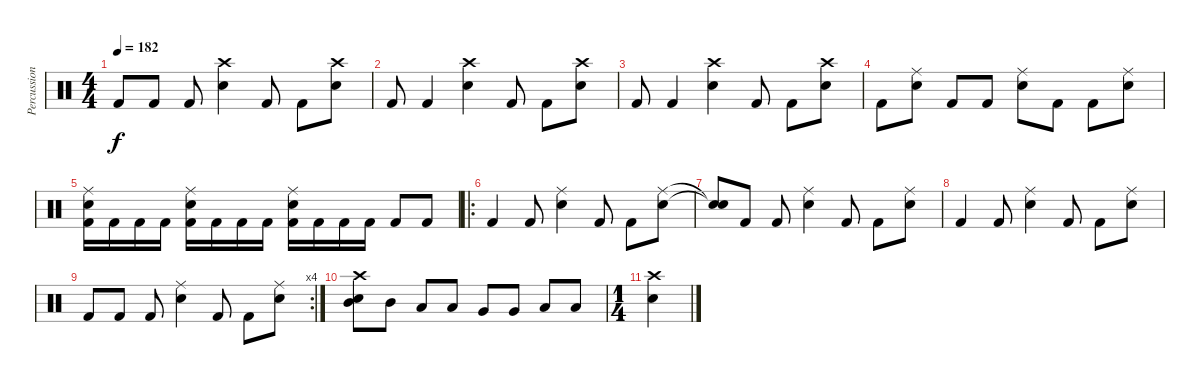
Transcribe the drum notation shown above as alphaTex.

\track ("Percussion" "Percussion") {instrument percussion}
\staff {score}
\articulation defaults
\ts (4 4)
\tempo 182
\clef neutral
\ks c "Kick (hit) 2".8{dy f} "Kick (hit) 2".8 "Kick (hit) 2".8
("Crash high (hit)" "Snare (hit) 2").4 "Kick (hit) 2".8 "Kick (hit) 2".8 ("Crash high (hit)" "Snare (hit) 2").8 |
"Kick (hit) 2".8 "Kick (hit) 2".4 ("Crash high (hit)" "Snare (hit) 2").4 "Kick (hit) 2".8 "Kick (hit) 2".8 ("Crash high (hit)" "Snare (hit) 2").8 |
"Kick (hit) 2".8 "Kick (hit) 2".4 ("Crash high (hit)" "Snare (hit) 2").4 "Kick (hit) 2".8 "Kick (hit) 2".8 ("Crash high (hit)" "Snare (hit) 2").8 |
"Kick (hit) 2".8 ("Ride (middle)" "Snare (hit) 2").8 "Kick (hit) 2".8 "Kick (hit) 2".8 ("Ride (middle)" "Snare (hit) 2").8 "Kick (hit) 2".8 "Kick (hit) 2".8 ("Ride (middle)" "Snare (hit) 2").8 |
("Kick (hit) 2" "Ride (middle)" "Snare (hit) 2").16 "Kick (hit) 2".16 "Kick (hit) 2".16 "Kick (hit) 2".16 ("Kick (hit) 2" "Ride (middle)" "Snare (hit) 2").16 "Kick (hit) 2".16 "Kick (hit) 2".16 "Kick (hit) 2".16 ("Kick (hit) 2" "Ride (middle)" "Snare (hit) 2").16 "Kick (hit) 2".16 "Kick (hit) 2".16 "Kick (hit) 2".16 "Kick (hit) 2".8 "Kick (hit) 2".8 |
\ro "Kick (hit) 2".4 "Kick (hit) 2".8
("Ride (middle)" "Snare (hit) 2").4 "Kick (hit) 2".8 "Kick (hit) 2".8 ("Ride (middle)" "Snare (hit) 2").8 |
("Snare (hit)"{t} "Snare (hit)"{t}).8 "Kick (hit) 2".8 "Kick (hit) 2".8 ("Ride (middle)" "Snare (hit) 2").4 "Kick (hit) 2".8 "Kick (hit) 2".8 ("Ride (middle)" "Snare (hit) 2").8 |
"Kick (hit) 2".4 "Kick (hit) 2".8 ("Ride (middle)" "Snare (hit) 2").4 "Kick (hit) 2".8 "Kick (hit) 2".8 ("Ride (middle)" "Snare (hit) 2").8 |
\rc 4 "Kick (hit) 2".8 "Kick (hit) 2".8 "Kick (hit) 2".8
("Ride (middle)" "Snare (hit) 2").4 "Kick (hit) 2".8 "Kick (hit) 2".8 ("Ride (middle)" "Snare (hit) 2").8 |
("Crash high (hit)" "Snare (hit) 2" "Mid Tom (hit)").8 "Mid Tom (hit)".8 "Low Tom (hit)".8 "Low Tom (hit)".8 "Very Low Tom (hit)".8 "Very Low Tom (hit)".8 "Low Floor Tom (hit)".8 "Low Floor Tom (hit)".8 |
\ts (1 4)
("Crash high (hit)" "Snare (hit) 2").4
